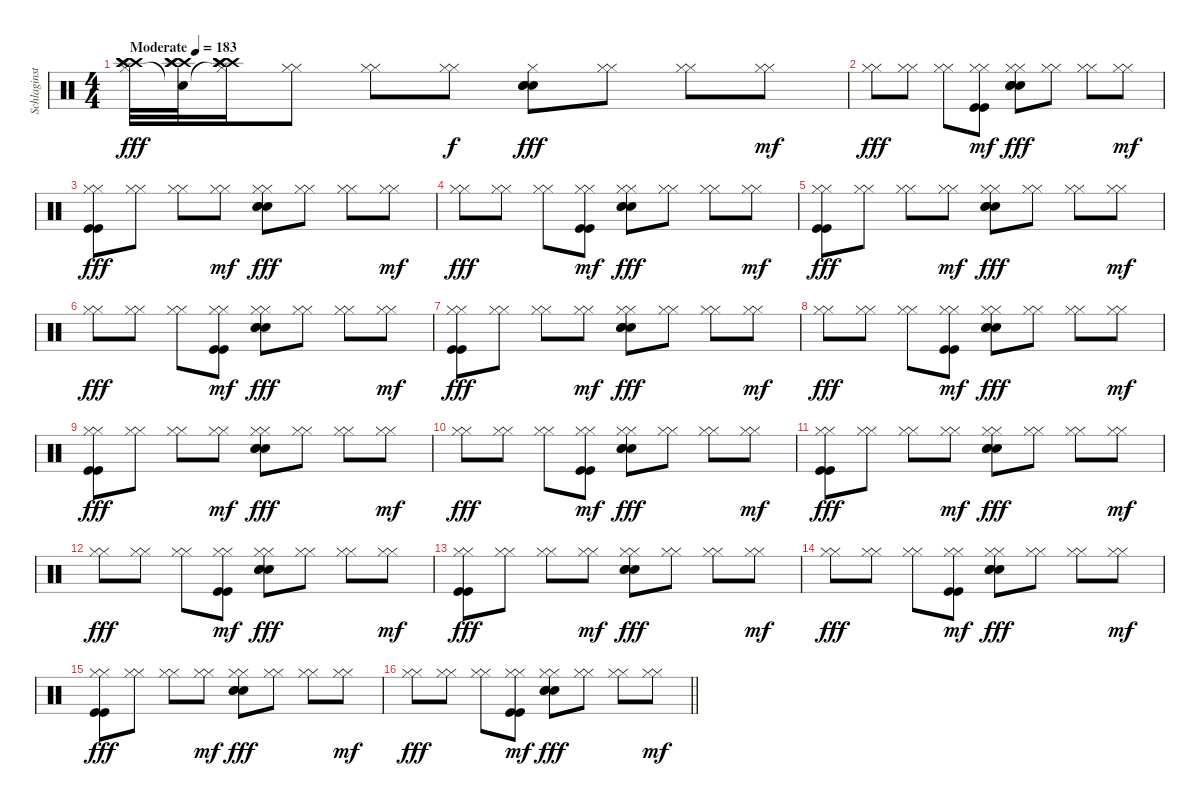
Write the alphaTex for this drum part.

\track ("Schlaginstrumente - Auswahl" "Schlaginst") {instrument percussion}
\staff {score}
\articulation defaults
\ts (4 4)
\tempo (183 "Moderate")
\clef neutral
\ks c
("Hi-Hat (closed)" "Crash high (hit)" "Crash high (hit)" "Crash high (hit)" "Crash high (hit)").32{dy fff} ("Snare (hit)"{t} "Crash high (hit)" "Crash high (hit)" "Crash high (hit)" "Crash high (hit)").32 ("Hi-Hat (closed)"{t} "Crash high (hit)" "Crash high (hit)" "Crash high (hit)" "Crash high (hit)").16 ("Hi-Hat (closed)" "Hi-Hat (closed)").8 ("Hi-Hat (closed)" "Hi-Hat (closed)").8 ("Hi-Hat (closed)" "Hi-Hat (closed)").8{dy f} ("Hi-Hat (closed)" "Snare (hit) 2" "Snare (hit) 2" "Snare (hit) 2").8{dy fff} ("Hi-Hat (closed)" "Hi-Hat (closed)").8 ("Hi-Hat (closed)" "Hi-Hat (closed)").8 ("Hi-Hat (closed)" "Hi-Hat (closed)").8{dy mf} |
("Hi-Hat (closed)" "Hi-Hat (closed)").8{dy fff} ("Hi-Hat (closed)" "Hi-Hat (closed)").8 ("Hi-Hat (closed)" "Hi-Hat (closed)").8 ("Hi-Hat (closed)" "Hi-Hat (closed)" "Kick (hit)" "Kick (hit)").8{dy mf} ("Hi-Hat (closed)" "Hi-Hat (closed)" "Snare (hit) 2" "Snare (hit) 2" "Snare (hit) 2" "Snare (hit) 2").8{dy fff} ("Hi-Hat (closed)" "Hi-Hat (closed)").8 ("Hi-Hat (closed)" "Hi-Hat (closed)").8 ("Hi-Hat (closed)" "Hi-Hat (closed)").8{dy mf} |
("Hi-Hat (closed)" "Hi-Hat (closed)" "Kick (hit)" "Kick (hit)").8{dy fff} ("Hi-Hat (closed)" "Hi-Hat (closed)").8 ("Hi-Hat (closed)" "Hi-Hat (closed)").8 ("Hi-Hat (closed)" "Hi-Hat (closed)").8{dy mf} ("Hi-Hat (closed)" "Hi-Hat (closed)" "Snare (hit) 2" "Snare (hit) 2" "Snare (hit) 2").8{dy fff} ("Hi-Hat (closed)" "Hi-Hat (closed)").8 ("Hi-Hat (closed)" "Hi-Hat (closed)").8 ("Hi-Hat (closed)" "Hi-Hat (closed)").8{dy mf} |
("Hi-Hat (closed)" "Hi-Hat (closed)").8{dy fff} ("Hi-Hat (closed)" "Hi-Hat (closed)").8 ("Hi-Hat (closed)" "Hi-Hat (closed)").8 ("Hi-Hat (closed)" "Hi-Hat (closed)" "Kick (hit)" "Kick (hit)").8{dy mf} ("Hi-Hat (closed)" "Hi-Hat (closed)" "Snare (hit) 2" "Snare (hit) 2" "Snare (hit) 2").8{dy fff} ("Hi-Hat (closed)" "Hi-Hat (closed)").8 ("Hi-Hat (closed)" "Hi-Hat (closed)").8 ("Hi-Hat (closed)" "Hi-Hat (closed)").8{dy mf} |
("Hi-Hat (closed)" "Hi-Hat (closed)" "Kick (hit)" "Kick (hit)").8{dy fff} ("Hi-Hat (closed)" "Hi-Hat (closed)").8 ("Hi-Hat (closed)" "Hi-Hat (closed)").8 ("Hi-Hat (closed)" "Hi-Hat (closed)").8{dy mf} ("Hi-Hat (closed)" "Hi-Hat (closed)" "Snare (hit) 2" "Snare (hit) 2" "Snare (hit) 2").8{dy fff} ("Hi-Hat (closed)" "Hi-Hat (closed)").8 ("Hi-Hat (closed)" "Hi-Hat (closed)").8 ("Hi-Hat (closed)" "Hi-Hat (closed)").8{dy mf} |
("Hi-Hat (closed)" "Hi-Hat (closed)").8{dy fff} ("Hi-Hat (closed)" "Hi-Hat (closed)").8 ("Hi-Hat (closed)" "Hi-Hat (closed)").8 ("Hi-Hat (closed)" "Hi-Hat (closed)" "Kick (hit)" "Kick (hit)").8{dy mf} ("Hi-Hat (closed)" "Hi-Hat (closed)" "Snare (hit) 2" "Snare (hit) 2" "Snare (hit) 2").8{dy fff} ("Hi-Hat (closed)" "Hi-Hat (closed)").8 ("Hi-Hat (closed)" "Hi-Hat (closed)").8 ("Hi-Hat (closed)" "Hi-Hat (closed)").8{dy mf} |
("Hi-Hat (closed)" "Hi-Hat (closed)" "Kick (hit)" "Kick (hit)").8{dy fff} ("Hi-Hat (closed)" "Hi-Hat (closed)").8 ("Hi-Hat (closed)" "Hi-Hat (closed)").8 ("Hi-Hat (closed)" "Hi-Hat (closed)").8{dy mf} ("Hi-Hat (closed)" "Hi-Hat (closed)" "Snare (hit) 2" "Snare (hit) 2" "Snare (hit) 2").8{dy fff} ("Hi-Hat (closed)" "Hi-Hat (closed)").8 ("Hi-Hat (closed)" "Hi-Hat (closed)").8 ("Hi-Hat (closed)" "Hi-Hat (closed)").8{dy mf} |
("Hi-Hat (closed)" "Hi-Hat (closed)").8{dy fff} ("Hi-Hat (closed)" "Hi-Hat (closed)").8 ("Hi-Hat (closed)" "Hi-Hat (closed)").8 ("Hi-Hat (closed)" "Hi-Hat (closed)" "Kick (hit)" "Kick (hit)").8{dy mf} ("Hi-Hat (closed)" "Hi-Hat (closed)" "Snare (hit) 2" "Snare (hit) 2" "Snare (hit) 2").8{dy fff} ("Hi-Hat (closed)" "Hi-Hat (closed)").8 ("Hi-Hat (closed)" "Hi-Hat (closed)").8 ("Hi-Hat (closed)" "Hi-Hat (closed)").8{dy mf} |
("Hi-Hat (closed)" "Hi-Hat (closed)" "Kick (hit)" "Kick (hit)").8{dy fff} ("Hi-Hat (closed)" "Hi-Hat (closed)").8 ("Hi-Hat (closed)" "Hi-Hat (closed)").8 ("Hi-Hat (closed)" "Hi-Hat (closed)").8{dy mf} ("Hi-Hat (closed)" "Hi-Hat (closed)" "Snare (hit) 2" "Snare (hit) 2" "Snare (hit) 2").8{dy fff} ("Hi-Hat (closed)" "Hi-Hat (closed)").8 ("Hi-Hat (closed)" "Hi-Hat (closed)").8 ("Hi-Hat (closed)" "Hi-Hat (closed)").8{dy mf} |
("Hi-Hat (closed)" "Hi-Hat (closed)").8{dy fff} ("Hi-Hat (closed)" "Hi-Hat (closed)").8 ("Hi-Hat (closed)" "Hi-Hat (closed)").8 ("Hi-Hat (closed)" "Hi-Hat (closed)" "Kick (hit)" "Kick (hit)").8{dy mf} ("Hi-Hat (closed)" "Hi-Hat (closed)" "Snare (hit) 2" "Snare (hit) 2" "Snare (hit) 2").8{dy fff} ("Hi-Hat (closed)" "Hi-Hat (closed)").8 ("Hi-Hat (closed)" "Hi-Hat (closed)").8 ("Hi-Hat (closed)" "Hi-Hat (closed)").8{dy mf} |
("Hi-Hat (closed)" "Hi-Hat (closed)" "Kick (hit)" "Kick (hit)").8{dy fff} ("Hi-Hat (closed)" "Hi-Hat (closed)").8 ("Hi-Hat (closed)" "Hi-Hat (closed)").8 ("Hi-Hat (closed)" "Hi-Hat (closed)").8{dy mf} ("Hi-Hat (closed)" "Hi-Hat (closed)" "Snare (hit) 2" "Snare (hit) 2" "Snare (hit) 2").8{dy fff} ("Hi-Hat (closed)" "Hi-Hat (closed)").8 ("Hi-Hat (closed)" "Hi-Hat (closed)").8 ("Hi-Hat (closed)" "Hi-Hat (closed)").8{dy mf} |
("Hi-Hat (closed)" "Hi-Hat (closed)").8{dy fff} ("Hi-Hat (closed)" "Hi-Hat (closed)").8 ("Hi-Hat (closed)" "Hi-Hat (closed)").8 ("Hi-Hat (closed)" "Hi-Hat (closed)" "Kick (hit)" "Kick (hit)").8{dy mf} ("Hi-Hat (closed)" "Hi-Hat (closed)" "Snare (hit) 2" "Snare (hit) 2" "Snare (hit) 2").8{dy fff} ("Hi-Hat (closed)" "Hi-Hat (closed)").8 ("Hi-Hat (closed)" "Hi-Hat (closed)").8 ("Hi-Hat (closed)" "Hi-Hat (closed)").8{dy mf} |
("Hi-Hat (closed)" "Hi-Hat (closed)" "Kick (hit)" "Kick (hit)").8{dy fff} ("Hi-Hat (closed)" "Hi-Hat (closed)").8 ("Hi-Hat (closed)" "Hi-Hat (closed)").8 ("Hi-Hat (closed)" "Hi-Hat (closed)").8{dy mf} ("Hi-Hat (closed)" "Hi-Hat (closed)" "Snare (hit) 2" "Snare (hit) 2" "Snare (hit) 2").8{dy fff} ("Hi-Hat (closed)" "Hi-Hat (closed)").8 ("Hi-Hat (closed)" "Hi-Hat (closed)").8 ("Hi-Hat (closed)" "Hi-Hat (closed)").8{dy mf} |
("Hi-Hat (closed)" "Hi-Hat (closed)").8{dy fff} ("Hi-Hat (closed)" "Hi-Hat (closed)").8 ("Hi-Hat (closed)" "Hi-Hat (closed)").8 ("Hi-Hat (closed)" "Hi-Hat (closed)" "Kick (hit)" "Kick (hit)").8{dy mf} ("Hi-Hat (closed)" "Hi-Hat (closed)" "Snare (hit) 2" "Snare (hit) 2" "Snare (hit) 2").8{dy fff} ("Hi-Hat (closed)" "Hi-Hat (closed)").8 ("Hi-Hat (closed)" "Hi-Hat (closed)").8 ("Hi-Hat (closed)" "Hi-Hat (closed)").8{dy mf} |
("Hi-Hat (closed)" "Hi-Hat (closed)" "Kick (hit)" "Kick (hit)").8{dy fff} ("Hi-Hat (closed)" "Hi-Hat (closed)").8 ("Hi-Hat (closed)" "Hi-Hat (closed)").8 ("Hi-Hat (closed)" "Hi-Hat (closed)").8{dy mf} ("Hi-Hat (closed)" "Hi-Hat (closed)" "Snare (hit) 2" "Snare (hit) 2" "Snare (hit) 2").8{dy fff} ("Hi-Hat (closed)" "Hi-Hat (closed)").8 ("Hi-Hat (closed)" "Hi-Hat (closed)").8 ("Hi-Hat (closed)" "Hi-Hat (closed)").8{dy mf} |
\barLineRight lightlight
("Hi-Hat (closed)" "Hi-Hat (closed)").8{dy fff} ("Hi-Hat (closed)" "Hi-Hat (closed)").8 ("Hi-Hat (closed)" "Hi-Hat (closed)").8 ("Hi-Hat (closed)" "Hi-Hat (closed)" "Kick (hit)" "Kick (hit)").8{dy mf} ("Hi-Hat (closed)" "Hi-Hat (closed)" "Snare (hit) 2" "Snare (hit) 2" "Snare (hit) 2").8{dy fff} ("Hi-Hat (closed)" "Hi-Hat (closed)").8 ("Hi-Hat (closed)" "Hi-Hat (closed)").8 ("Hi-Hat (closed)" "Hi-Hat (closed)").8{dy mf}
